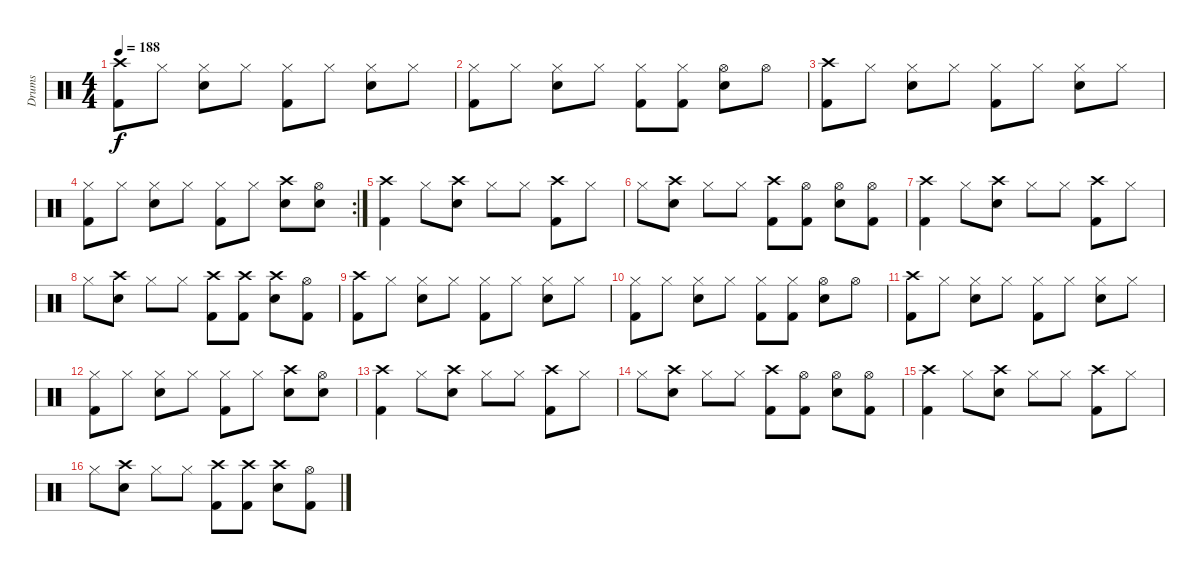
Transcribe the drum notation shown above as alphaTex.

\track ("Drums" "Drums") {instrument percussion}
\staff {score}
\articulation defaults
\ts (4 4)
\tempo 188
\clef neutral
\ks c
("Crash high (hit)" "Kick (hit) 2").8{dy f} "Hi-Hat (closed)".8 ("Hi-Hat (closed)" "Snare (hit) 2").8 "Hi-Hat (closed)".8 ("Hi-Hat (closed)" "Kick (hit) 2").8 "Hi-Hat (closed)".8 ("Hi-Hat (closed)" "Snare (hit) 2").8 "Hi-Hat (closed)".8 |
("Hi-Hat (closed)" "Kick (hit) 2").8 "Hi-Hat (closed)".8 ("Hi-Hat (closed)" "Snare (hit) 2").8 "Hi-Hat (closed)".8 ("Hi-Hat (closed)" "Kick (hit) 2").8 ("Hi-Hat (closed)" "Kick (hit) 2").8 ("Hi-Hat (open)" "Snare (hit) 2").8 "Hi-Hat (open)".8 |
("Crash high (hit)" "Kick (hit) 2").8 "Hi-Hat (closed)".8 ("Hi-Hat (closed)" "Snare (hit) 2").8 "Hi-Hat (closed)".8 ("Hi-Hat (closed)" "Kick (hit) 2").8 "Hi-Hat (closed)".8 ("Hi-Hat (closed)" "Snare (hit) 2").8 "Hi-Hat (closed)".8 |
\rc 2
("Hi-Hat (closed)" "Kick (hit) 2").8 "Hi-Hat (closed)".8 ("Hi-Hat (closed)" "Snare (hit) 2").8 "Hi-Hat (closed)".8 ("Hi-Hat (closed)" "Kick (hit) 2").8 "Hi-Hat (closed)".8 ("Crash high (hit)" "Snare (hit) 2").8 ("Hi-Hat (open)" "Snare (hit) 2").8 |
("Crash high (hit)" "Kick (hit) 2").4 "Hi-Hat (closed)".8 ("Crash high (hit)" "Snare (hit) 2").8 "Hi-Hat (closed)".8 "Hi-Hat (closed)".8 ("Crash high (hit)" "Kick (hit) 2").8 "Hi-Hat (closed)".8 |
"Hi-Hat (closed)".8 ("Crash high (hit)" "Snare (hit) 2").8 "Hi-Hat (closed)".8 "Hi-Hat (closed)".8 ("Crash high (hit)" "Kick (hit) 2").8 ("Hi-Hat (open)" "Kick (hit) 2").8 ("Hi-Hat (open)" "Snare (hit) 2").8 ("Hi-Hat (open)" "Kick (hit) 2").8 |
("Crash high (hit)" "Kick (hit) 2").4 "Hi-Hat (closed)".8 ("Crash high (hit)" "Snare (hit) 2").8 "Hi-Hat (closed)".8 "Hi-Hat (closed)".8 ("Crash high (hit)" "Kick (hit) 2").8 "Hi-Hat (closed)".8 |
"Hi-Hat (closed)".8 ("Crash high (hit)" "Snare (hit) 2").8 "Hi-Hat (closed)".8 "Hi-Hat (closed)".8 ("Crash high (hit)" "Kick (hit) 2").8 ("Crash high (hit)" "Kick (hit) 2").8 ("Crash high (hit)" "Snare (hit) 2").8 ("Hi-Hat (open)" "Kick (hit) 2").8 |
("Crash high (hit)" "Kick (hit) 2").8 "Hi-Hat (closed)".8 ("Hi-Hat (closed)" "Snare (hit) 2").8 "Hi-Hat (closed)".8 ("Hi-Hat (closed)" "Kick (hit) 2").8 "Hi-Hat (closed)".8 ("Hi-Hat (closed)" "Snare (hit) 2").8 "Hi-Hat (closed)".8 |
("Hi-Hat (closed)" "Kick (hit) 2").8 "Hi-Hat (closed)".8 ("Hi-Hat (closed)" "Snare (hit) 2").8 "Hi-Hat (closed)".8 ("Hi-Hat (closed)" "Kick (hit) 2").8 ("Hi-Hat (closed)" "Kick (hit) 2").8 ("Hi-Hat (open)" "Snare (hit) 2").8 "Hi-Hat (open)".8 |
("Crash high (hit)" "Kick (hit) 2").8 "Hi-Hat (closed)".8 ("Hi-Hat (closed)" "Snare (hit) 2").8 "Hi-Hat (closed)".8 ("Hi-Hat (closed)" "Kick (hit) 2").8 "Hi-Hat (closed)".8 ("Hi-Hat (closed)" "Snare (hit) 2").8 "Hi-Hat (closed)".8 |
("Hi-Hat (closed)" "Kick (hit) 2").8 "Hi-Hat (closed)".8 ("Hi-Hat (closed)" "Snare (hit) 2").8 "Hi-Hat (closed)".8 ("Hi-Hat (closed)" "Kick (hit) 2").8 "Hi-Hat (closed)".8 ("Crash high (hit)" "Snare (hit) 2").8 ("Hi-Hat (open)" "Snare (hit) 2").8 |
("Crash high (hit)" "Kick (hit) 2").4 "Hi-Hat (closed)".8 ("Crash high (hit)" "Snare (hit) 2").8 "Hi-Hat (closed)".8 "Hi-Hat (closed)".8 ("Crash high (hit)" "Kick (hit) 2").8 "Hi-Hat (closed)".8 |
"Hi-Hat (closed)".8 ("Crash high (hit)" "Snare (hit) 2").8 "Hi-Hat (closed)".8 "Hi-Hat (closed)".8 ("Crash high (hit)" "Kick (hit) 2").8 ("Hi-Hat (open)" "Kick (hit) 2").8 ("Hi-Hat (open)" "Snare (hit) 2").8 ("Hi-Hat (open)" "Kick (hit) 2").8 |
("Crash high (hit)" "Kick (hit) 2").4 "Hi-Hat (closed)".8 ("Crash high (hit)" "Snare (hit) 2").8 "Hi-Hat (closed)".8 "Hi-Hat (closed)".8 ("Crash high (hit)" "Kick (hit) 2").8 "Hi-Hat (closed)".8 |
"Hi-Hat (closed)".8 ("Crash high (hit)" "Snare (hit) 2").8 "Hi-Hat (closed)".8 "Hi-Hat (closed)".8 ("Crash high (hit)" "Kick (hit) 2").8 ("Crash high (hit)" "Kick (hit) 2").8 ("Crash high (hit)" "Snare (hit) 2").8 ("Hi-Hat (open)" "Kick (hit) 2").8
